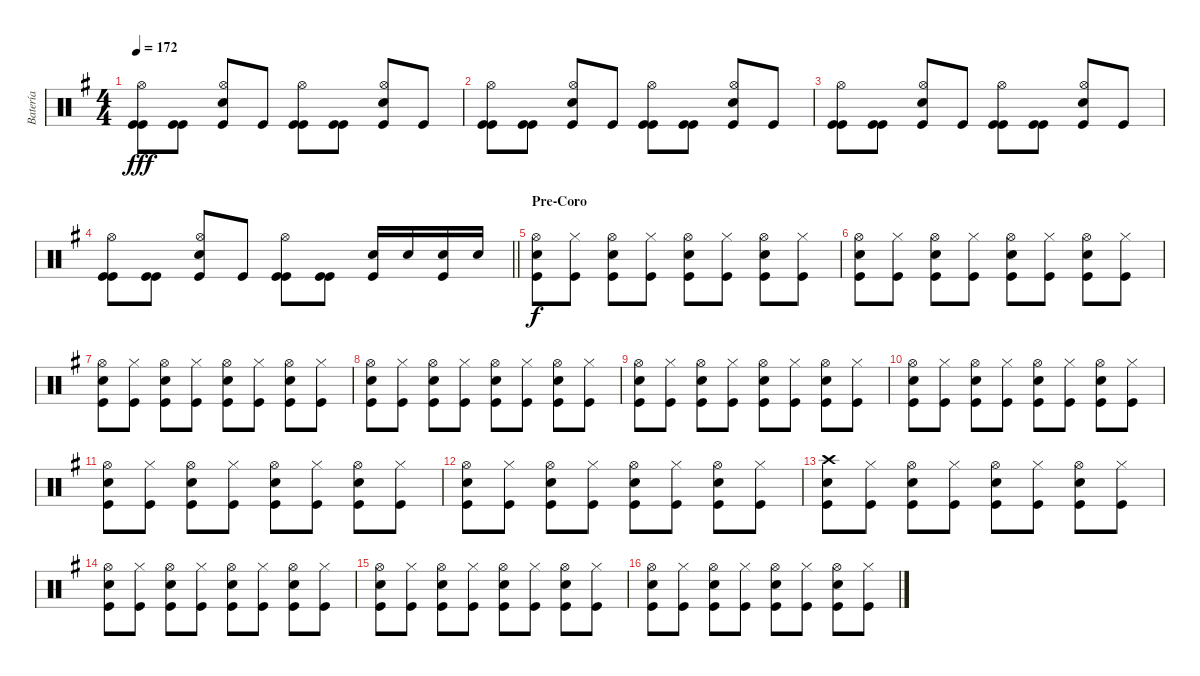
\track ("Batería" "Batería") {instrument percussion}
\staff {score}
\articulation defaults
\ts (4 4)
\tempo 172
\clef neutral
\ks eminor
("Kick (hit)" "Kick (hit)" "Hi-Hat (open)").8{dy fff} ("Kick (hit)" "Kick (hit)").8 ("Kick (hit)" "Electric Snare (hit)" "Hi-Hat (open)").8 "Kick (hit)".8 ("Kick (hit)" "Kick (hit)" "Hi-Hat (open)").8 ("Kick (hit)" "Kick (hit)").8 ("Kick (hit)" "Electric Snare (hit)" "Hi-Hat (open)").8 "Kick (hit)".8 |
("Kick (hit)" "Kick (hit)" "Hi-Hat (open)").8 ("Kick (hit)" "Kick (hit)").8 ("Kick (hit)" "Electric Snare (hit)" "Hi-Hat (open)").8 "Kick (hit)".8 ("Kick (hit)" "Kick (hit)" "Hi-Hat (open)").8 ("Kick (hit)" "Kick (hit)").8 ("Kick (hit)" "Electric Snare (hit)" "Hi-Hat (open)").8 "Kick (hit)".8 |
("Kick (hit)" "Kick (hit)" "Hi-Hat (open)").8 ("Kick (hit)" "Kick (hit)").8 ("Kick (hit)" "Electric Snare (hit)" "Hi-Hat (open)").8 "Kick (hit)".8 ("Kick (hit)" "Kick (hit)" "Hi-Hat (open)").8 ("Kick (hit)" "Kick (hit)").8 ("Kick (hit)" "Electric Snare (hit)" "Hi-Hat (open)").8 "Kick (hit)".8 |
\barLineRight lightlight
("Kick (hit)" "Kick (hit)" "Hi-Hat (open)").8 ("Kick (hit)" "Kick (hit)").8 ("Kick (hit)" "Electric Snare (hit)" "Hi-Hat (open)").8 "Kick (hit)".8 ("Kick (hit)" "Kick (hit)" "Hi-Hat (open)").8 ("Kick (hit)" "Kick (hit)").8 ("Electric Snare (hit)" "Kick (hit)").16 "Electric Snare (hit)".16 ("Electric Snare (hit)" "Kick (hit)").16 "Electric Snare (hit)".16 |
\section ("" "Pre-Coro")
("Kick (hit)" "Electric Snare (hit)" "Hi-Hat (open)").8{dy f} ("Kick (hit)" "Hi-Hat (closed)").8 ("Kick (hit)" "Electric Snare (hit)" "Hi-Hat (open)").8 ("Kick (hit)" "Hi-Hat (closed)").8 ("Kick (hit)" "Electric Snare (hit)" "Hi-Hat (open)").8 ("Kick (hit)" "Hi-Hat (closed)").8 ("Kick (hit)" "Electric Snare (hit)" "Hi-Hat (open)").8 ("Kick (hit)" "Hi-Hat (closed)").8 |
("Kick (hit)" "Electric Snare (hit)" "Hi-Hat (open)").8 ("Kick (hit)" "Hi-Hat (closed)").8 ("Kick (hit)" "Electric Snare (hit)" "Hi-Hat (open)").8 ("Kick (hit)" "Hi-Hat (closed)").8 ("Kick (hit)" "Electric Snare (hit)" "Hi-Hat (open)").8 ("Kick (hit)" "Hi-Hat (closed)").8 ("Kick (hit)" "Electric Snare (hit)" "Hi-Hat (open)").8 ("Kick (hit)" "Hi-Hat (closed)").8 |
("Kick (hit)" "Electric Snare (hit)" "Hi-Hat (open)").8 ("Kick (hit)" "Hi-Hat (closed)").8 ("Kick (hit)" "Electric Snare (hit)" "Hi-Hat (open)").8 ("Kick (hit)" "Hi-Hat (closed)").8 ("Kick (hit)" "Electric Snare (hit)" "Hi-Hat (open)").8 ("Kick (hit)" "Hi-Hat (closed)").8 ("Kick (hit)" "Electric Snare (hit)" "Hi-Hat (open)").8 ("Kick (hit)" "Hi-Hat (closed)").8 |
("Kick (hit)" "Electric Snare (hit)" "Hi-Hat (open)").8 ("Kick (hit)" "Hi-Hat (closed)").8 ("Kick (hit)" "Electric Snare (hit)" "Hi-Hat (open)").8 ("Kick (hit)" "Hi-Hat (closed)").8 ("Kick (hit)" "Electric Snare (hit)" "Hi-Hat (open)").8 ("Kick (hit)" "Hi-Hat (closed)").8 ("Kick (hit)" "Electric Snare (hit)" "Hi-Hat (open)").8 ("Kick (hit)" "Hi-Hat (closed)").8 |
("Kick (hit)" "Electric Snare (hit)" "Hi-Hat (open)").8 ("Kick (hit)" "Hi-Hat (closed)").8 ("Kick (hit)" "Electric Snare (hit)" "Hi-Hat (open)").8 ("Kick (hit)" "Hi-Hat (closed)").8 ("Kick (hit)" "Electric Snare (hit)" "Hi-Hat (open)").8 ("Kick (hit)" "Hi-Hat (closed)").8 ("Kick (hit)" "Electric Snare (hit)" "Hi-Hat (open)").8 ("Kick (hit)" "Hi-Hat (closed)").8 |
("Kick (hit)" "Electric Snare (hit)" "Hi-Hat (open)").8 ("Kick (hit)" "Hi-Hat (closed)").8 ("Kick (hit)" "Electric Snare (hit)" "Hi-Hat (open)").8 ("Kick (hit)" "Hi-Hat (closed)").8 ("Kick (hit)" "Electric Snare (hit)" "Hi-Hat (open)").8 ("Kick (hit)" "Hi-Hat (closed)").8 ("Kick (hit)" "Electric Snare (hit)" "Hi-Hat (open)").8 ("Kick (hit)" "Hi-Hat (closed)").8 |
("Kick (hit)" "Electric Snare (hit)" "Hi-Hat (open)").8 ("Kick (hit)" "Hi-Hat (closed)").8 ("Kick (hit)" "Electric Snare (hit)" "Hi-Hat (open)").8 ("Kick (hit)" "Hi-Hat (closed)").8 ("Kick (hit)" "Electric Snare (hit)" "Hi-Hat (open)").8 ("Kick (hit)" "Hi-Hat (closed)").8 ("Kick (hit)" "Electric Snare (hit)" "Hi-Hat (open)").8 ("Kick (hit)" "Hi-Hat (closed)").8 |
("Kick (hit)" "Electric Snare (hit)" "Hi-Hat (open)").8 ("Kick (hit)" "Hi-Hat (closed)").8 ("Kick (hit)" "Electric Snare (hit)" "Hi-Hat (open)").8 ("Kick (hit)" "Hi-Hat (closed)").8 ("Kick (hit)" "Electric Snare (hit)" "Hi-Hat (open)").8 ("Kick (hit)" "Hi-Hat (closed)").8 ("Kick (hit)" "Electric Snare (hit)" "Hi-Hat (open)").8 ("Kick (hit)" "Hi-Hat (closed)").8 |
("Kick (hit)" "Electric Snare (hit)" "Crash high (hit)").8 ("Kick (hit)" "Hi-Hat (closed)").8 ("Kick (hit)" "Electric Snare (hit)" "Hi-Hat (open)").8 ("Kick (hit)" "Hi-Hat (closed)").8 ("Kick (hit)" "Electric Snare (hit)" "Hi-Hat (open)").8 ("Kick (hit)" "Hi-Hat (closed)").8 ("Kick (hit)" "Electric Snare (hit)" "Hi-Hat (open)").8 ("Kick (hit)" "Hi-Hat (closed)").8 |
("Kick (hit)" "Electric Snare (hit)" "Hi-Hat (open)").8 ("Kick (hit)" "Hi-Hat (closed)").8 ("Kick (hit)" "Electric Snare (hit)" "Hi-Hat (open)").8 ("Kick (hit)" "Hi-Hat (closed)").8 ("Kick (hit)" "Electric Snare (hit)" "Hi-Hat (open)").8 ("Kick (hit)" "Hi-Hat (closed)").8 ("Kick (hit)" "Electric Snare (hit)" "Hi-Hat (open)").8 ("Kick (hit)" "Hi-Hat (closed)").8 |
("Kick (hit)" "Electric Snare (hit)" "Hi-Hat (open)").8 ("Kick (hit)" "Hi-Hat (closed)").8 ("Kick (hit)" "Electric Snare (hit)" "Hi-Hat (open)").8 ("Kick (hit)" "Hi-Hat (closed)").8 ("Kick (hit)" "Electric Snare (hit)" "Hi-Hat (open)").8 ("Kick (hit)" "Hi-Hat (closed)").8 ("Kick (hit)" "Electric Snare (hit)" "Hi-Hat (open)").8 ("Kick (hit)" "Hi-Hat (closed)").8 |
("Kick (hit)" "Electric Snare (hit)" "Hi-Hat (open)").8 ("Kick (hit)" "Hi-Hat (closed)").8 ("Kick (hit)" "Electric Snare (hit)" "Hi-Hat (open)").8 ("Kick (hit)" "Hi-Hat (closed)").8 ("Kick (hit)" "Electric Snare (hit)" "Hi-Hat (open)").8 ("Kick (hit)" "Hi-Hat (closed)").8 ("Kick (hit)" "Electric Snare (hit)" "Hi-Hat (open)").8 ("Kick (hit)" "Hi-Hat (closed)").8
